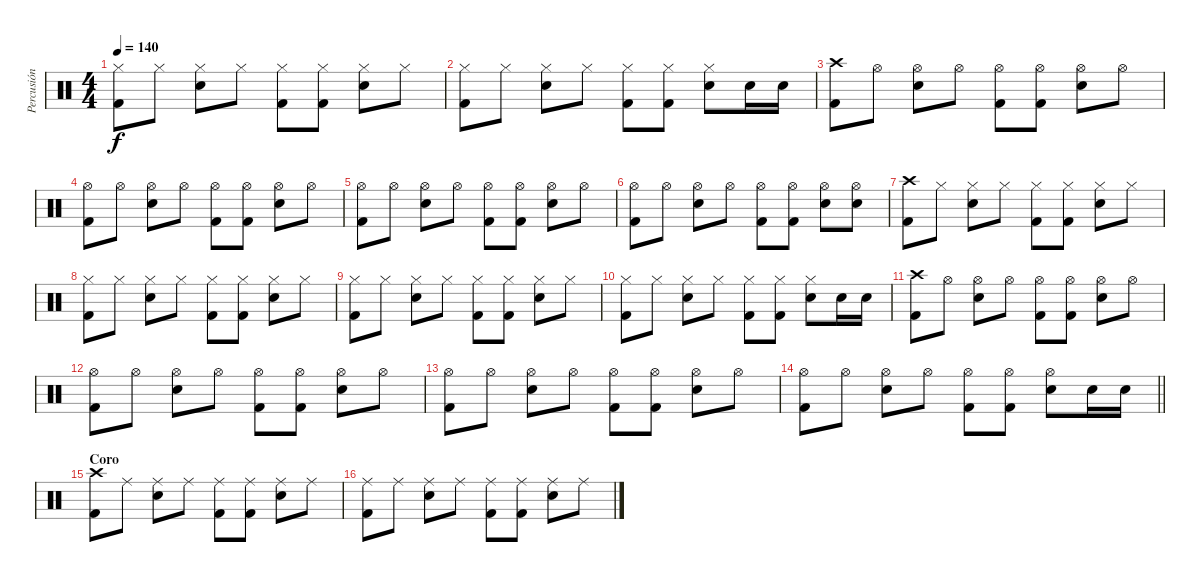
\track ("Percusión" "Percusión") {instrument percussion}
\staff {score}
\articulation defaults
\ts (4 4)
\tempo 140
\clef neutral
\ks c
("Hi-Hat (closed)" "Kick (hit) 2").8{dy f} "Hi-Hat (closed)".8 ("Hi-Hat (closed)" "Electric Snare (hit)").8 "Hi-Hat (closed)".8 ("Hi-Hat (closed)" "Kick (hit) 2").8 ("Hi-Hat (closed)" "Kick (hit) 2").8 ("Hi-Hat (closed)" "Electric Snare (hit)").8 "Hi-Hat (closed)".8 |
("Hi-Hat (closed)" "Kick (hit) 2").8 "Hi-Hat (closed)".8 ("Hi-Hat (closed)" "Electric Snare (hit)").8 "Hi-Hat (closed)".8 ("Hi-Hat (closed)" "Kick (hit) 2").8 ("Hi-Hat (closed)" "Kick (hit) 2").8 ("Hi-Hat (closed)" "Electric Snare (hit)").8 "Electric Snare (hit)".16 "Electric Snare (hit)".16 |
("Crash high (hit)" "Kick (hit) 2").8 "Hi-Hat (open)".8 ("Hi-Hat (open)" "Electric Snare (hit)").8 "Hi-Hat (open)".8 ("Hi-Hat (open)" "Kick (hit) 2").8 ("Hi-Hat (open)" "Kick (hit) 2").8 ("Hi-Hat (open)" "Electric Snare (hit)").8 "Hi-Hat (open)".8 |
("Hi-Hat (open)" "Kick (hit) 2").8 "Hi-Hat (open)".8 ("Hi-Hat (open)" "Electric Snare (hit)").8 "Hi-Hat (open)".8 ("Hi-Hat (open)" "Kick (hit) 2").8 ("Hi-Hat (open)" "Kick (hit) 2").8 ("Hi-Hat (open)" "Electric Snare (hit)").8 "Hi-Hat (open)".8 |
("Hi-Hat (open)" "Kick (hit) 2").8 "Hi-Hat (open)".8 ("Hi-Hat (open)" "Electric Snare (hit)").8 "Hi-Hat (open)".8 ("Hi-Hat (open)" "Kick (hit) 2").8 ("Hi-Hat (open)" "Kick (hit) 2").8 ("Hi-Hat (open)" "Electric Snare (hit)").8 "Hi-Hat (open)".8 |
("Hi-Hat (open)" "Kick (hit) 2").8 "Hi-Hat (open)".8 ("Hi-Hat (open)" "Electric Snare (hit)").8 "Hi-Hat (open)".8 ("Hi-Hat (open)" "Kick (hit) 2").8 ("Hi-Hat (open)" "Kick (hit) 2").8 ("Hi-Hat (open)" "Electric Snare (hit)").8 ("Hi-Hat (open)" "Electric Snare (hit)").8 |
("Crash high (hit)" "Kick (hit) 2").8 "Hi-Hat (closed)".8 ("Hi-Hat (closed)" "Electric Snare (hit)").8 "Hi-Hat (closed)".8 ("Hi-Hat (closed)" "Kick (hit) 2").8 ("Hi-Hat (closed)" "Kick (hit) 2").8 ("Hi-Hat (closed)" "Electric Snare (hit)").8 "Hi-Hat (closed)".8 |
("Hi-Hat (closed)" "Kick (hit) 2").8 "Hi-Hat (closed)".8 ("Hi-Hat (closed)" "Electric Snare (hit)").8 "Hi-Hat (closed)".8 ("Hi-Hat (closed)" "Kick (hit) 2").8 ("Hi-Hat (closed)" "Kick (hit) 2").8 ("Hi-Hat (closed)" "Electric Snare (hit)").8 "Hi-Hat (closed)".8 |
("Hi-Hat (closed)" "Kick (hit) 2").8 "Hi-Hat (closed)".8 ("Hi-Hat (closed)" "Electric Snare (hit)").8 "Hi-Hat (closed)".8 ("Hi-Hat (closed)" "Kick (hit) 2").8 ("Hi-Hat (closed)" "Kick (hit) 2").8 ("Hi-Hat (closed)" "Electric Snare (hit)").8 "Hi-Hat (closed)".8 |
("Hi-Hat (closed)" "Kick (hit) 2").8 "Hi-Hat (closed)".8 ("Hi-Hat (closed)" "Electric Snare (hit)").8 "Hi-Hat (closed)".8 ("Hi-Hat (closed)" "Kick (hit) 2").8 ("Hi-Hat (closed)" "Kick (hit) 2").8 ("Hi-Hat (closed)" "Electric Snare (hit)").8 "Electric Snare (hit)".16 "Electric Snare (hit)".16 |
("Crash high (hit)" "Kick (hit) 2").8 "Hi-Hat (open)".8 ("Hi-Hat (open)" "Electric Snare (hit)").8 "Hi-Hat (open)".8 ("Hi-Hat (open)" "Kick (hit) 2").8 ("Hi-Hat (open)" "Kick (hit) 2").8 ("Hi-Hat (open)" "Electric Snare (hit)").8 "Hi-Hat (open)".8 |
("Hi-Hat (open)" "Kick (hit) 2").8 "Hi-Hat (open)".8 ("Hi-Hat (open)" "Electric Snare (hit)").8 "Hi-Hat (open)".8 ("Hi-Hat (open)" "Kick (hit) 2").8 ("Hi-Hat (open)" "Kick (hit) 2").8 ("Hi-Hat (open)" "Electric Snare (hit)").8 "Hi-Hat (open)".8 |
("Hi-Hat (open)" "Kick (hit) 2").8 "Hi-Hat (open)".8 ("Hi-Hat (open)" "Electric Snare (hit)").8 "Hi-Hat (open)".8 ("Hi-Hat (open)" "Kick (hit) 2").8 ("Hi-Hat (open)" "Kick (hit) 2").8 ("Hi-Hat (open)" "Electric Snare (hit)").8 "Hi-Hat (open)".8 |
\barLineRight lightlight
("Hi-Hat (open)" "Kick (hit) 2").8 "Hi-Hat (open)".8 ("Hi-Hat (open)" "Electric Snare (hit)").8 "Hi-Hat (open)".8 ("Hi-Hat (open)" "Kick (hit) 2").8 ("Hi-Hat (open)" "Kick (hit) 2").8 ("Hi-Hat (open)" "Electric Snare (hit)").8 "Electric Snare (hit)".16 "Electric Snare (hit)".16 |
\section ("" "Coro")
("Crash high (hit)" "Kick (hit) 2").8 "Ride (middle)".8 ("Ride (middle)" "Electric Snare (hit)").8 "Ride (middle)".8 ("Ride (middle)" "Kick (hit) 2").8 ("Ride (middle)" "Kick (hit) 2").8 ("Ride (middle)" "Electric Snare (hit)").8 "Ride (middle)".8 |
("Ride (middle)" "Kick (hit) 2").8 "Ride (middle)".8 ("Ride (middle)" "Electric Snare (hit)").8 "Ride (middle)".8 ("Ride (middle)" "Kick (hit) 2").8 ("Ride (middle)" "Kick (hit) 2").8 ("Ride (middle)" "Electric Snare (hit)").8 "Ride (middle)".8
